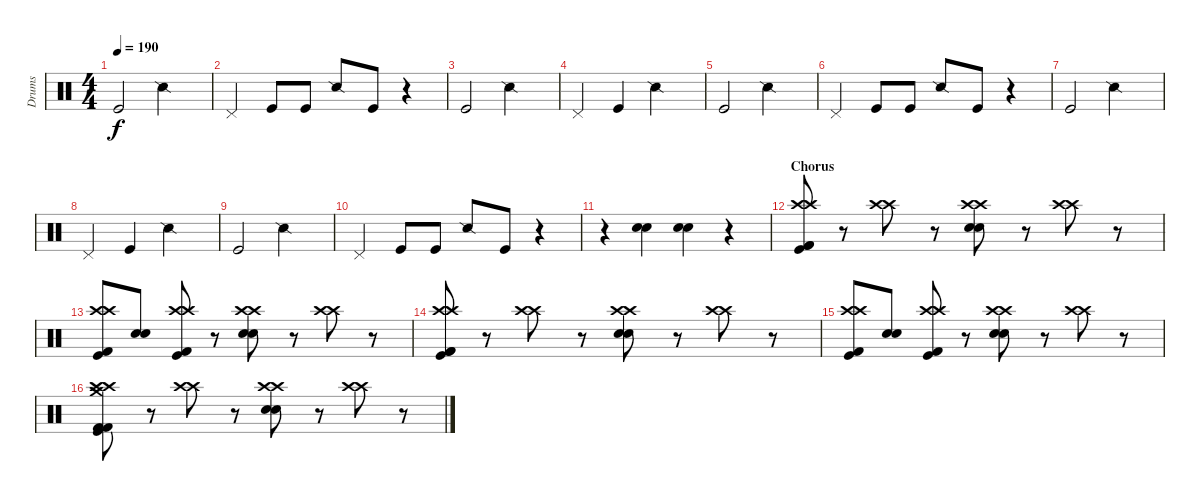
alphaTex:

\track ("Drums" "Drums") {instrument percussion}
\staff {score}
\articulation defaults
\ts (4 4)
\tempo 190
\clef neutral
\ks c "Kick (hit)".2{dy f} "Snare (side stick) 2".2
|
"Pedal Hi-Hat (hit)".4 "Kick (hit)".8 "Kick (hit)".8 "Snare (side stick) 2".8 "Kick (hit)".8 r.4 |
"Kick (hit)".2 "Snare (side stick) 2".2 |
"Pedal Hi-Hat (hit)".4 "Kick (hit)".4 "Snare (side stick) 2".2 |
"Kick (hit)".2 "Snare (side stick) 2".2 |
"Pedal Hi-Hat (hit)".4 "Kick (hit)".8 "Kick (hit)".8 "Snare (side stick) 2".8 "Kick (hit)".8 r.4 |
"Kick (hit)".2 "Snare (side stick) 2".2 |
"Pedal Hi-Hat (hit)".4 "Kick (hit)".4 "Snare (side stick) 2".2 |
"Kick (hit)".2 "Snare (side stick) 2".2 |
"Pedal Hi-Hat (hit)".4 "Kick (hit)".8 "Kick (hit)".8 "Snare (side stick) 2".8 "Kick (hit)".8 r.4 |
r.4 ("Electric Snare (hit)" "Electric Snare (hit)").4 ("Electric Snare (hit)" "Electric Snare (hit)").4 r.4 |
\section ("" "Chorus")
("Crash high (hit)" "Crash high (hit)" "Kick (hit) 2" "Kick (hit) 2" "Kick (hit)").8 r.8 ("Crash high (hit)" "Crash high (hit)").8 r.8 ("Crash high (hit)" "Crash high (hit)" "Electric Snare (hit)" "Electric Snare (hit)").8 r.8 ("Crash high (hit)" "Crash high (hit)").8 r.8 |
("Crash high (hit)" "Crash high (hit)" "Kick (hit) 2" "Kick (hit)").8 ("Electric Snare (hit)" "Electric Snare (hit)").8 ("Crash high (hit)" "Crash high (hit)" "Kick (hit) 2" "Kick (hit)").8 r.8 ("Crash high (hit)" "Crash high (hit)" "Electric Snare (hit)" "Electric Snare (hit)").8 r.8 ("Crash high (hit)" "Crash high (hit)").8 r.8 |
("Crash high (hit)" "Crash high (hit)" "Kick (hit) 2" "Kick (hit) 2" "Kick (hit)").8 r.8 ("Crash high (hit)" "Crash high (hit)").8 r.8 ("Crash high (hit)" "Crash high (hit)" "Electric Snare (hit)" "Electric Snare (hit)").8 r.8 ("Crash high (hit)" "Crash high (hit)").8 r.8 |
("Crash high (hit)" "Crash high (hit)" "Kick (hit) 2" "Kick (hit)").8 ("Electric Snare (hit)" "Electric Snare (hit)").8 ("Crash high (hit)" "Crash high (hit)" "Kick (hit) 2" "Kick (hit)").8 r.8 ("Crash high (hit)" "Crash high (hit)" "Electric Snare (hit)" "Electric Snare (hit)").8 r.8 ("Crash high (hit)" "Crash high (hit)").8 r.8 |
("Crash high (hit)" "Crash high (hit)" "Crash medium (hit)" "Kick (hit) 2" "Kick (hit) 2" "Kick (hit)").8 r.8 ("Crash high (hit)" "Crash high (hit)").8 r.8 ("Crash high (hit)" "Crash high (hit)" "Electric Snare (hit)" "Electric Snare (hit)").8 r.8 ("Crash high (hit)" "Crash high (hit)").8 r.8
